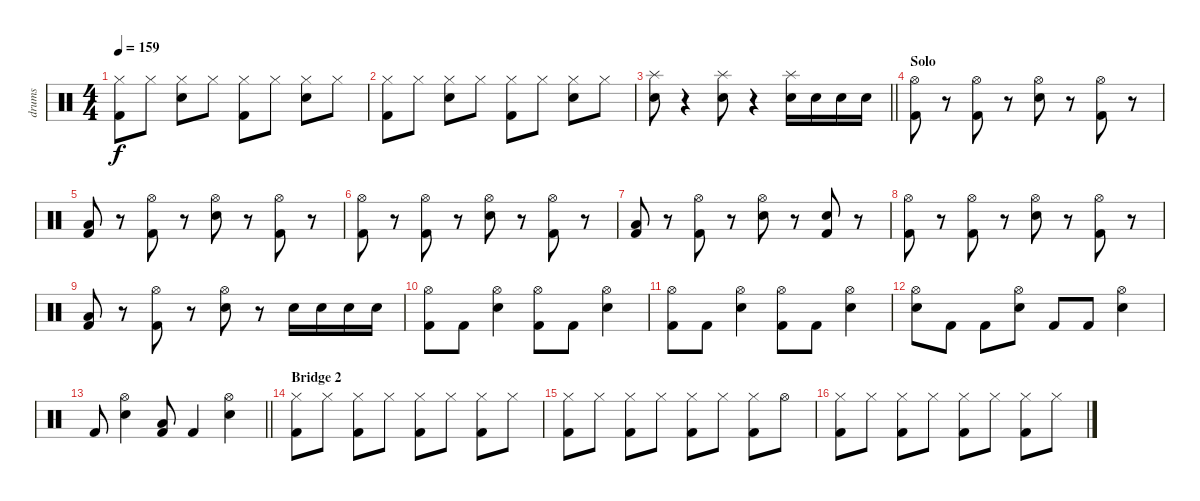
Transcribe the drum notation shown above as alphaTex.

\track ("drums" "drums") {instrument percussion}
\staff {score}
\articulation defaults
\ts (4 4)
\tempo 159
\clef neutral
\ks c
("Hi-Hat (closed)" "Kick (hit) 2").8{dy f} "Hi-Hat (closed)".8 ("Hi-Hat (closed)" "Electric Snare (hit)").8 "Hi-Hat (closed)".8 ("Hi-Hat (closed)" "Kick (hit) 2").8 "Hi-Hat (closed)".8 ("Hi-Hat (closed)" "Electric Snare (hit)").8 "Hi-Hat (closed)".8 |
("Hi-Hat (closed)" "Kick (hit) 2").8 "Hi-Hat (closed)".8 ("Hi-Hat (closed)" "Electric Snare (hit)").8 "Hi-Hat (closed)".8 ("Hi-Hat (closed)" "Kick (hit) 2").8 "Hi-Hat (closed)".8 ("Hi-Hat (closed)" "Electric Snare (hit)").8 "Hi-Hat (closed)".8 |
\barLineRight lightlight
("Splash (hit)" "Electric Snare (hit)").8 r.4 ("Splash (hit)" "Electric Snare (hit)").8 r.4 ("Splash (hit)" "Electric Snare (hit)").16 "Electric Snare (hit)".16 "Electric Snare (hit)".16 "Electric Snare (hit)".16 |
\section ("" "Solo")
("Hi-Hat (open)" "Kick (hit) 2").8 r.8 ("Hi-Hat (open)" "Kick (hit) 2").8 r.8 ("Hi-Hat (open)" "Electric Snare (hit)").8 r.8 ("Hi-Hat (open)" "Kick (hit) 2").8 r.8 |
("Low Tom (hit)" "Kick (hit) 2").8 r.8 ("Hi-Hat (open)" "Kick (hit) 2").8 r.8 ("Hi-Hat (open)" "Electric Snare (hit)").8 r.8 ("Hi-Hat (open)" "Kick (hit) 2").8 r.8 |
("Hi-Hat (open)" "Kick (hit) 2").8 r.8 ("Hi-Hat (open)" "Kick (hit) 2").8 r.8 ("Hi-Hat (open)" "Electric Snare (hit)").8 r.8 ("Hi-Hat (open)" "Kick (hit) 2").8 r.8 |
("Low Tom (hit)" "Kick (hit) 2").8 r.8 ("Hi-Hat (open)" "Kick (hit) 2").8 r.8 ("Hi-Hat (open)" "Electric Snare (hit)").8 r.8 ("Electric Snare (hit)" "Kick (hit) 2").8 r.8 |
("Hi-Hat (open)" "Kick (hit) 2").8 r.8 ("Hi-Hat (open)" "Kick (hit) 2").8 r.8 ("Hi-Hat (open)" "Electric Snare (hit)").8 r.8 ("Hi-Hat (open)" "Kick (hit) 2").8 r.8 |
("Low Tom (hit)" "Kick (hit) 2").8 r.8 ("Hi-Hat (open)" "Kick (hit) 2").8 r.8 ("Hi-Hat (open)" "Electric Snare (hit)").8 r.8 "Electric Snare (hit)".16 "Electric Snare (hit)".16 "Electric Snare (hit)".16 "Electric Snare (hit)".16 |
("Hi-Hat (open)" "Kick (hit) 2").8 "Kick (hit) 2".8 ("Hi-Hat (open)" "Electric Snare (hit)").4 ("Hi-Hat (open)" "Kick (hit) 2").8 "Kick (hit) 2".8 ("Hi-Hat (open)" "Electric Snare (hit)").4 |
("Hi-Hat (open)" "Kick (hit) 2").8 "Kick (hit) 2".8 ("Hi-Hat (open)" "Electric Snare (hit)").4 ("Hi-Hat (open)" "Kick (hit) 2").8 "Kick (hit) 2".8 ("Hi-Hat (open)" "Electric Snare (hit)").4 |
("Hi-Hat (open)" "Electric Snare (hit)").8 "Kick (hit) 2".8 "Kick (hit) 2".8 ("Hi-Hat (open)" "Electric Snare (hit)").8 "Kick (hit) 2".8 "Kick (hit) 2".8 ("Hi-Hat (open)" "Electric Snare (hit)").4 |
\barLineRight lightlight "Kick (hit) 2".8
("Hi-Hat (open)" "Electric Snare (hit)").4 ("Low Tom (hit)" "Kick (hit) 2").8 "Kick (hit) 2".4 ("Hi-Hat (open)" "Electric Snare (hit)").4 |
\section ("" "Bridge 2")
("Hi-Hat (closed)" "Kick (hit) 2").8 "Hi-Hat (closed)".8 ("Hi-Hat (closed)" "Kick (hit) 2").8 "Hi-Hat (closed)".8 ("Hi-Hat (closed)" "Kick (hit) 2").8 "Hi-Hat (closed)".8 ("Hi-Hat (closed)" "Kick (hit) 2").8 "Hi-Hat (closed)".8 |
("Hi-Hat (closed)" "Kick (hit) 2").8 "Hi-Hat (closed)".8 ("Hi-Hat (closed)" "Kick (hit) 2").8 "Hi-Hat (closed)".8 ("Hi-Hat (closed)" "Kick (hit) 2").8 "Hi-Hat (closed)".8 ("Hi-Hat (closed)" "Kick (hit) 2").8 "Hi-Hat (open)".8 |
("Hi-Hat (closed)" "Kick (hit) 2").8 "Hi-Hat (closed)".8 ("Hi-Hat (closed)" "Kick (hit) 2").8 "Hi-Hat (closed)".8 ("Hi-Hat (closed)" "Kick (hit) 2").8 "Hi-Hat (closed)".8 ("Hi-Hat (closed)" "Kick (hit) 2").8 "Hi-Hat (closed)".8
